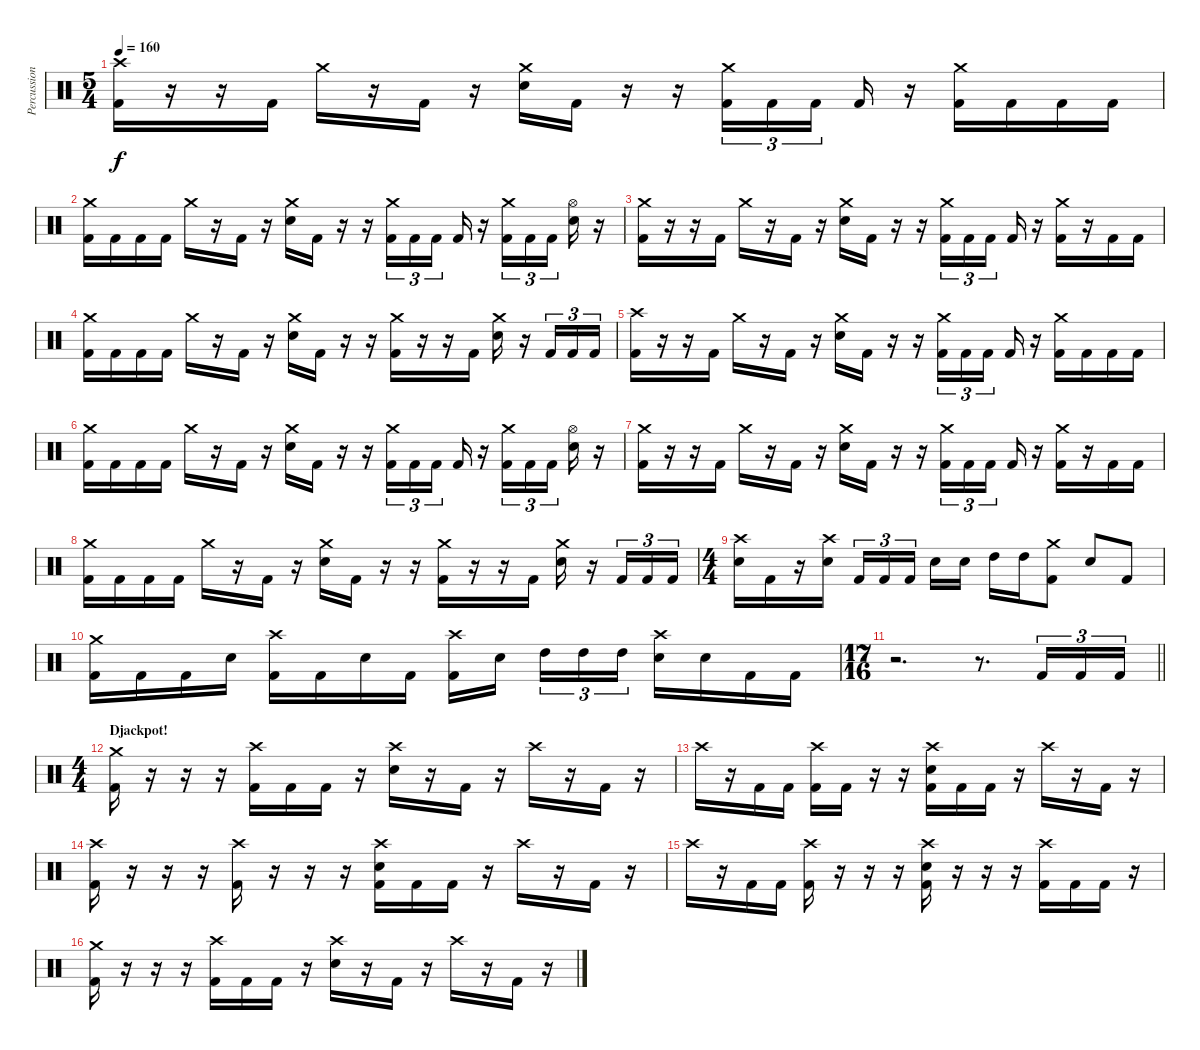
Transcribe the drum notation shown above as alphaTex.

\track ("Percussion" "Percussion") {instrument percussion}
\staff {score}
\articulation defaults
\ts (5 4)
\tempo 160
\clef neutral
\ks c
("Crash high (hit)" "Kick (hit) 2").16{dy f} r.16 r.16 "Kick (hit) 2".16 "Crash medium (hit)".16 r.16 "Kick (hit) 2".16 r.16 ("Crash medium (hit)" "Electric Snare (hit)").16 "Kick (hit) 2".16 r.16 r.16 ("Crash medium (hit)" "Kick (hit) 2").16{tu (3 2)} "Kick (hit) 2".16{tu (3 2)} "Kick (hit) 2".16{tu (3 2) beam splitsecondary} "Kick (hit) 2".16 r.16 ("Crash medium (hit)" "Kick (hit) 2").16 "Kick (hit) 2".16 "Kick (hit) 2".16 "Kick (hit) 2".16 |
("Crash medium (hit)" "Kick (hit) 2").16 "Kick (hit) 2".16 "Kick (hit) 2".16 "Kick (hit) 2".16 "Crash medium (hit)".16 r.16 "Kick (hit) 2".16 r.16 ("Crash medium (hit)" "Electric Snare (hit)").16 "Kick (hit) 2".16 r.16 r.16 ("Crash medium (hit)" "Kick (hit) 2").16{tu (3 2)} "Kick (hit) 2".16{tu (3 2)} "Kick (hit) 2".16{tu (3 2) beam splitsecondary} "Kick (hit) 2".16 r.16 ("Crash medium (hit)" "Kick (hit) 2").16{tu (3 2)} "Kick (hit) 2".16{tu (3 2)} "Kick (hit) 2".16{tu (3 2) beam splitsecondary} ("Hi-Hat (open)" "Electric Snare (hit)").16 r.16 |
("Crash medium (hit)" "Kick (hit) 2").16 r.16 r.16 "Kick (hit) 2".16 "Crash medium (hit)".16 r.16 "Kick (hit) 2".16 r.16 ("Crash medium (hit)" "Electric Snare (hit)").16 "Kick (hit) 2".16 r.16 r.16 ("Crash medium (hit)" "Kick (hit) 2").16{tu (3 2)} "Kick (hit) 2".16{tu (3 2)} "Kick (hit) 2".16{tu (3 2) beam splitsecondary} "Kick (hit) 2".16 r.16 ("Crash medium (hit)" "Kick (hit) 2").16 r.16 "Kick (hit) 2".16 "Kick (hit) 2".16 |
("Crash medium (hit)" "Kick (hit) 2").16 "Kick (hit) 2".16 "Kick (hit) 2".16 "Kick (hit) 2".16 "Crash medium (hit)".16 r.16 "Kick (hit) 2".16 r.16 ("Crash medium (hit)" "Electric Snare (hit)").16 "Kick (hit) 2".16 r.16 r.16 ("Crash medium (hit)" "Kick (hit) 2").16 r.16 r.16 "Kick (hit) 2".16 ("Crash medium (hit)" "Electric Snare (hit)").16 r.16 "Kick (hit) 2".16{tu (3 2)} "Kick (hit) 2".16{tu (3 2)} "Kick (hit) 2".16{tu (3 2)} |
("Crash high (hit)" "Kick (hit) 2").16 r.16 r.16 "Kick (hit) 2".16 "Crash medium (hit)".16 r.16 "Kick (hit) 2".16 r.16 ("Crash medium (hit)" "Electric Snare (hit)").16 "Kick (hit) 2".16 r.16 r.16 ("Crash medium (hit)" "Kick (hit) 2").16{tu (3 2)} "Kick (hit) 2".16{tu (3 2)} "Kick (hit) 2".16{tu (3 2) beam splitsecondary} "Kick (hit) 2".16 r.16 ("Crash medium (hit)" "Kick (hit) 2").16 "Kick (hit) 2".16 "Kick (hit) 2".16 "Kick (hit) 2".16 |
("Crash medium (hit)" "Kick (hit) 2").16 "Kick (hit) 2".16 "Kick (hit) 2".16 "Kick (hit) 2".16 "Crash medium (hit)".16 r.16 "Kick (hit) 2".16 r.16 ("Crash medium (hit)" "Electric Snare (hit)").16 "Kick (hit) 2".16 r.16 r.16 ("Crash medium (hit)" "Kick (hit) 2").16{tu (3 2)} "Kick (hit) 2".16{tu (3 2)} "Kick (hit) 2".16{tu (3 2) beam splitsecondary} "Kick (hit) 2".16 r.16 ("Crash medium (hit)" "Kick (hit) 2").16{tu (3 2)} "Kick (hit) 2".16{tu (3 2)} "Kick (hit) 2".16{tu (3 2) beam splitsecondary} ("Hi-Hat (open)" "Electric Snare (hit)").16 r.16 |
("Crash medium (hit)" "Kick (hit) 2").16 r.16 r.16 "Kick (hit) 2".16 "Crash medium (hit)".16 r.16 "Kick (hit) 2".16 r.16 ("Crash medium (hit)" "Electric Snare (hit)").16 "Kick (hit) 2".16 r.16 r.16 ("Crash medium (hit)" "Kick (hit) 2").16{tu (3 2)} "Kick (hit) 2".16{tu (3 2)} "Kick (hit) 2".16{tu (3 2) beam splitsecondary} "Kick (hit) 2".16 r.16 ("Crash medium (hit)" "Kick (hit) 2").16 r.16 "Kick (hit) 2".16 "Kick (hit) 2".16 |
("Crash medium (hit)" "Kick (hit) 2").16 "Kick (hit) 2".16 "Kick (hit) 2".16 "Kick (hit) 2".16 "Crash medium (hit)".16 r.16 "Kick (hit) 2".16 r.16 ("Crash medium (hit)" "Electric Snare (hit)").16 "Kick (hit) 2".16 r.16 r.16 ("Crash medium (hit)" "Kick (hit) 2").16 r.16 r.16 "Kick (hit) 2".16 ("Crash medium (hit)" "Electric Snare (hit)").16 r.16 "Kick (hit) 2".16{tu (3 2)} "Kick (hit) 2".16{tu (3 2)} "Kick (hit) 2".16{tu (3 2)} |
\ts (4 4)
("Crash high (hit)" "Electric Snare (hit)").16 "Kick (hit) 2".16 r.16 ("Crash high (hit)" "Electric Snare (hit)").16 "Kick (hit) 2".16{tu (3 2)} "Kick (hit) 2".16{tu (3 2)} "Kick (hit) 2".16{tu (3 2) beam splitsecondary} "Electric Snare (hit)".16 "Electric Snare (hit)".16 "High Tom (hit)".16 "High Tom (hit)".16 ("Crash medium (hit)" "Kick (hit) 2").8 "Electric Snare (hit)".8 "Kick (hit) 2".8 |
("Crash medium (hit)" "Kick (hit) 2").16 "Kick (hit) 2".16 "Kick (hit) 2".16 "Electric Snare (hit)".16 ("Crash high (hit)" "Kick (hit) 2").16 "Kick (hit) 2".16 "Electric Snare (hit)".16 "Kick (hit) 2".16 ("Crash high (hit)" "Kick (hit) 2").16 "Electric Snare (hit)".16{beam splitsecondary} "High Tom (hit)".16{tu (3 2)} "High Tom (hit)".16{tu (3 2)} "High Tom (hit)".16{tu (3 2)} ("Crash high (hit)" "Electric Snare (hit)").16 "Electric Snare (hit)".16 "Kick (hit) 2".16 "Kick (hit) 2".16 |
\ts (17 16)
\barLineRight lightlight
r.2{d} r.8{d} "Kick (hit) 2".16{tu (3 2)} "Kick (hit) 2".16{tu (3 2)} "Kick (hit) 2".16{tu (3 2)} |
\ts (4 4)
\section ("" "Djackpot!")
("Crash medium (hit)" "Kick (hit) 2").16 r.16 r.16 r.16 ("Crash high (hit)" "Kick (hit) 2").16 "Kick (hit) 2".16 "Kick (hit) 2".16 r.16 ("Crash high (hit)" "Electric Snare (hit)").16 r.16 "Kick (hit) 2".16 r.16 "Crash high (hit)".16 r.16 "Kick (hit) 2".16 r.16 |
"Crash high (hit)".16 r.16 "Kick (hit) 2".16 "Kick (hit) 2".16 ("Crash high (hit)" "Kick (hit) 2").16 "Kick (hit) 2".16 r.16 r.16 ("Crash high (hit)" "Electric Snare (hit)" "Kick (hit) 2").16 "Kick (hit) 2".16 "Kick (hit) 2".16 r.16 "Crash high (hit)".16 r.16 "Kick (hit) 2".16 r.16 |
("Crash high (hit)" "Kick (hit) 2").16 r.16 r.16 r.16 ("Crash high (hit)" "Kick (hit) 2").16 r.16 r.16 r.16 ("Crash high (hit)" "Electric Snare (hit)" "Kick (hit) 2").16 "Kick (hit) 2".16 "Kick (hit) 2".16 r.16 "Crash high (hit)".16 r.16 "Kick (hit) 2".16 r.16 |
"Crash high (hit)".16 r.16 "Kick (hit) 2".16 "Kick (hit) 2".16 ("Crash high (hit)" "Kick (hit) 2").16 r.16 r.16 r.16 ("Crash high (hit)" "Electric Snare (hit)" "Kick (hit) 2").16 r.16 r.16 r.16 ("Crash high (hit)" "Kick (hit) 2").16 "Kick (hit) 2".16 "Kick (hit) 2".16 r.16 |
("Crash medium (hit)" "Kick (hit) 2").16 r.16 r.16 r.16 ("Crash high (hit)" "Kick (hit) 2").16 "Kick (hit) 2".16 "Kick (hit) 2".16 r.16 ("Crash high (hit)" "Electric Snare (hit)").16 r.16 "Kick (hit) 2".16 r.16 "Crash high (hit)".16 r.16 "Kick (hit) 2".16 r.16
